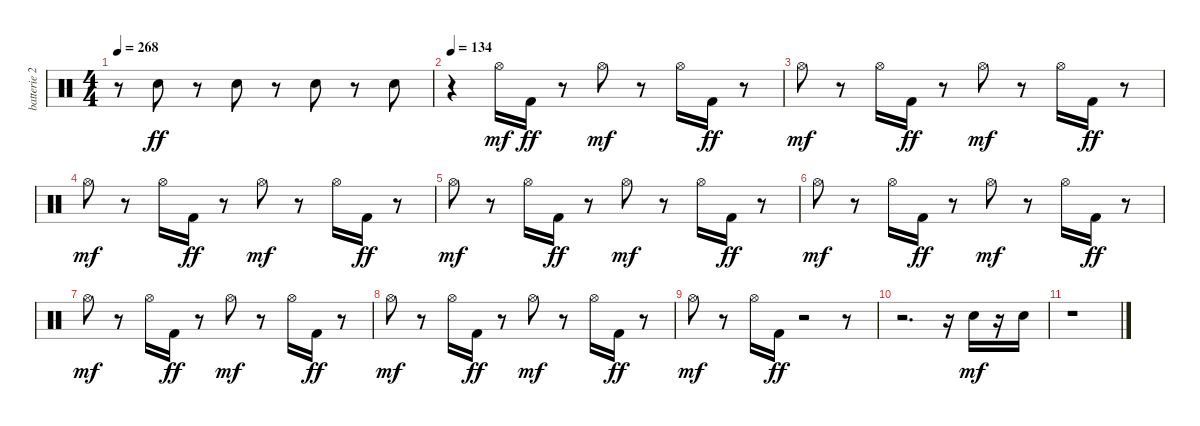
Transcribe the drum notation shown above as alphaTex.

\track ("batterie 2" "batterie 2") {instrument percussion}
\staff {score}
\articulation defaults
\ts (4 4)
\tempo 268
\clef neutral
\ks c
r.8{dy ff} "Electric Snare (hit)".8 r.8 "Electric Snare (hit)".8 r.8 "Electric Snare (hit)".8 r.8 "Electric Snare (hit)".8 |
\tempo 134
r.4 "Hi-Hat (open)".16{dy mf} "Kick (hit) 2".16{dy ff} r.8 "Hi-Hat (open)".8{dy mf} r.8 "Hi-Hat (open)".16 "Kick (hit) 2".16{dy ff} r.8 |
"Hi-Hat (open)".8{dy mf} r.8 "Hi-Hat (open)".16 "Kick (hit) 2".16{dy ff} r.8 "Hi-Hat (open)".8{dy mf} r.8 "Hi-Hat (open)".16 "Kick (hit) 2".16{dy ff} r.8 |
"Hi-Hat (open)".8{dy mf} r.8 "Hi-Hat (open)".16 "Kick (hit) 2".16{dy ff} r.8 "Hi-Hat (open)".8{dy mf} r.8 "Hi-Hat (open)".16 "Kick (hit) 2".16{dy ff} r.8 |
"Hi-Hat (open)".8{dy mf} r.8 "Hi-Hat (open)".16 "Kick (hit) 2".16{dy ff} r.8 "Hi-Hat (open)".8{dy mf} r.8 "Hi-Hat (open)".16 "Kick (hit) 2".16{dy ff} r.8 |
"Hi-Hat (open)".8{dy mf} r.8 "Hi-Hat (open)".16 "Kick (hit) 2".16{dy ff} r.8 "Hi-Hat (open)".8{dy mf} r.8 "Hi-Hat (open)".16 "Kick (hit) 2".16{dy ff} r.8 |
"Hi-Hat (open)".8{dy mf} r.8 "Hi-Hat (open)".16 "Kick (hit) 2".16{dy ff} r.8 "Hi-Hat (open)".8{dy mf} r.8 "Hi-Hat (open)".16 "Kick (hit) 2".16{dy ff} r.8 |
"Hi-Hat (open)".8{dy mf} r.8 "Hi-Hat (open)".16 "Kick (hit) 2".16{dy ff} r.8 "Hi-Hat (open)".8{dy mf} r.8 "Hi-Hat (open)".16 "Kick (hit) 2".16{dy ff} r.8 |
"Hi-Hat (open)".8{dy mf} r.8 "Hi-Hat (open)".16 "Kick (hit) 2".16{dy ff} r.2 r.8 |
r.2{d} r.16 "Electric Snare (hit)".16{dy mf} r.16 "Electric Snare (hit)".16 |
r.1
